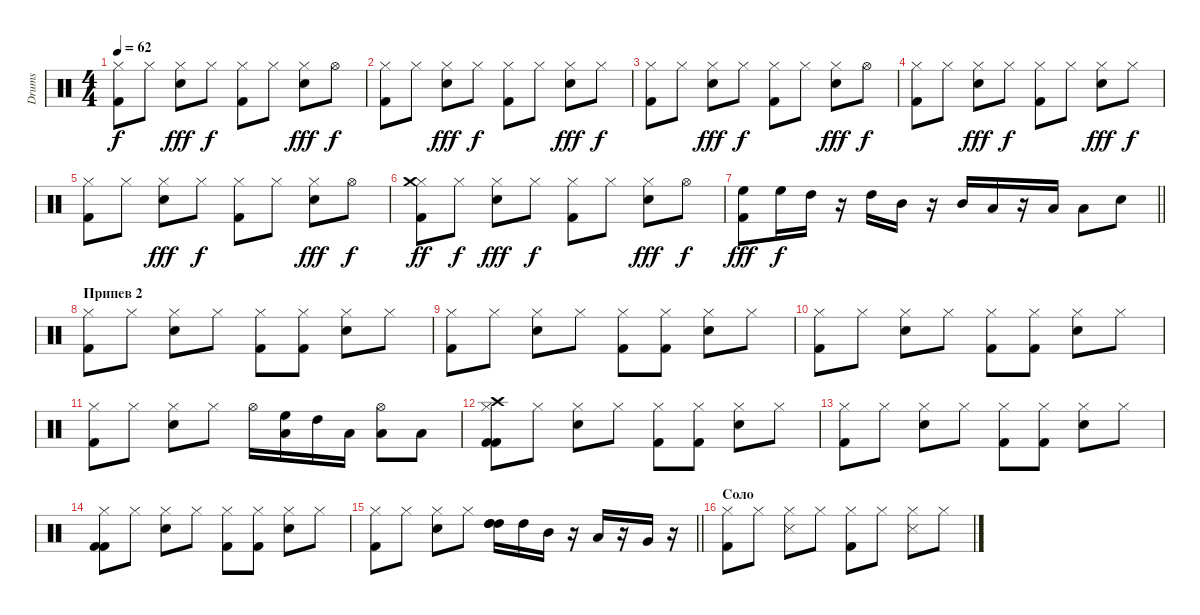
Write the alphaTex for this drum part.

\track ("Drums" "Drums") {instrument percussion}
\staff {score}
\articulation defaults
\ts (4 4)
\tempo 62
\clef neutral
\ks c
("Kick (hit) 2" "Hi-Hat (closed)").8{dy f} "Hi-Hat (closed)".8 ("Hi-Hat (closed)" "Electric Snare (hit)").8{dy fff} "Hi-Hat (closed)".8{dy f} ("Kick (hit) 2" "Hi-Hat (closed)").8 "Hi-Hat (closed)".8 ("Hi-Hat (closed)" "Electric Snare (hit)").8{dy fff} "Hi-Hat (open)".8{dy f} |
("Kick (hit) 2" "Hi-Hat (closed)").8 "Hi-Hat (closed)".8 ("Electric Snare (hit)" "Hi-Hat (closed)").8{dy fff} "Hi-Hat (closed)".8{dy f} ("Kick (hit) 2" "Hi-Hat (closed)").8 "Hi-Hat (closed)".8 ("Hi-Hat (closed)" "Electric Snare (hit)").8{dy fff} "Hi-Hat (closed)".8{dy f} |
("Kick (hit) 2" "Hi-Hat (closed)").8 "Hi-Hat (closed)".8 ("Hi-Hat (closed)" "Electric Snare (hit)").8{dy fff} "Hi-Hat (closed)".8{dy f} ("Kick (hit) 2" "Hi-Hat (closed)").8 "Hi-Hat (closed)".8 ("Hi-Hat (closed)" "Electric Snare (hit)").8{dy fff} "Hi-Hat (open)".8{dy f} |
("Kick (hit) 2" "Hi-Hat (closed)").8 "Hi-Hat (closed)".8 ("Hi-Hat (closed)" "Electric Snare (hit)").8{dy fff} "Hi-Hat (closed)".8{dy f} ("Kick (hit) 2" "Hi-Hat (closed)").8 "Hi-Hat (closed)".8 ("Hi-Hat (closed)" "Electric Snare (hit)").8{dy fff} "Hi-Hat (closed)".8{dy f} |
("Kick (hit) 2" "Hi-Hat (closed)").8 "Hi-Hat (closed)".8 ("Hi-Hat (closed)" "Electric Snare (hit)").8{dy fff} "Hi-Hat (closed)".8{dy f} ("Kick (hit) 2" "Hi-Hat (closed)").8 "Hi-Hat (closed)".8 ("Hi-Hat (closed)" "Electric Snare (hit)").8{dy fff} "Hi-Hat (open)".8{dy f} |
("Kick (hit) 2" "Hi-Hat (closed)" "Crash medium (hit)").8{dy ff} "Hi-Hat (closed)".8{dy f} ("Hi-Hat (closed)" "Electric Snare (hit)").8{dy fff} "Hi-Hat (closed)".8{dy f} ("Kick (hit) 2" "Hi-Hat (closed)").8 "Hi-Hat (closed)".8 ("Hi-Hat (closed)" "Electric Snare (hit)").8{dy fff} "Hi-Hat (open)".8{dy f} |
\barLineRight lightlight
("High Floor Tom (hit)" "Kick (hit) 2").8{dy fff} "High Floor Tom (hit)".16{dy f} "High Tom (hit)".16 r.16 "High Tom (hit)".16 "Mid Tom (hit)".16 r.16 "Mid Tom (hit)".16 "Low Tom (hit)".16 r.16 "Low Floor Tom (hit)".16 "Low Floor Tom (hit)".8 "Snare (hit) 2".8 |
\section ("" "Припев 2")
("Kick (hit) 2" "Hi-Hat (closed)").8 "Hi-Hat (closed)".8 ("Snare (hit) 2" "Hi-Hat (closed)").8 "Hi-Hat (closed)".8 ("Kick (hit) 2" "Hi-Hat (closed)").8 ("Kick (hit) 2" "Hi-Hat (closed)").8 ("Snare (hit) 2" "Hi-Hat (closed)").8 "Hi-Hat (closed)".8 |
("Kick (hit) 2" "Hi-Hat (closed)").8 "Hi-Hat (closed)".8 ("Snare (hit) 2" "Hi-Hat (closed)").8 "Hi-Hat (closed)".8 ("Kick (hit) 2" "Hi-Hat (closed)").8 ("Kick (hit) 2" "Hi-Hat (closed)").8 ("Snare (hit) 2" "Hi-Hat (closed)").8 "Hi-Hat (closed)".8 |
("Kick (hit) 2" "Hi-Hat (closed)").8 "Hi-Hat (closed)".8 ("Snare (hit) 2" "Hi-Hat (closed)").8 "Hi-Hat (closed)".8 ("Kick (hit) 2" "Hi-Hat (closed)").8 ("Kick (hit) 2" "Hi-Hat (closed)").8 ("Snare (hit) 2" "Hi-Hat (closed)").8 "Hi-Hat (closed)".8 |
("Kick (hit) 2" "Hi-Hat (closed)").8 "Hi-Hat (closed)".8 ("Snare (hit) 2" "Hi-Hat (closed)").8 "Hi-Hat (closed)".8 "Hi-Hat (open)".16 ("Low Tom (hit)" "High Floor Tom (hit)").16 "High Tom (hit)".16 "Low Tom (hit)".16 ("Hi-Hat (open)" "Low Floor Tom (hit)").8 "Low Floor Tom (hit)".8 |
("Kick (hit) 2" "Hi-Hat (closed)" "Crash high (hit)" "Kick (hit) 2").8 "Hi-Hat (closed)".8 ("Snare (hit) 2" "Hi-Hat (closed)").8 "Hi-Hat (closed)".8 ("Kick (hit) 2" "Hi-Hat (closed)").8 ("Kick (hit) 2" "Hi-Hat (closed)").8 ("Snare (hit) 2" "Hi-Hat (closed)").8 "Hi-Hat (closed)".8 |
("Kick (hit) 2" "Hi-Hat (closed)").8 "Hi-Hat (closed)".8 ("Snare (hit) 2" "Hi-Hat (closed)").8 "Hi-Hat (closed)".8 ("Kick (hit) 2" "Hi-Hat (closed)").8 ("Kick (hit) 2" "Hi-Hat (closed)").8 ("Snare (hit) 2" "Hi-Hat (closed)").8 "Hi-Hat (closed)".8 |
("Kick (hit) 2" "Hi-Hat (closed)" "Kick (hit) 2").8 "Hi-Hat (closed)".8 ("Snare (hit) 2" "Hi-Hat (closed)").8 "Hi-Hat (closed)".8 ("Kick (hit) 2" "Hi-Hat (closed)").8 ("Kick (hit) 2" "Hi-Hat (closed)").8 ("Snare (hit) 2" "Hi-Hat (closed)").8 "Hi-Hat (closed)".8 |
\barLineRight lightlight
("Kick (hit) 2" "Hi-Hat (closed)").8 "Hi-Hat (closed)".8 ("Snare (hit) 2" "Hi-Hat (closed)").8 "Hi-Hat (closed)".8 ("High Tom (hit)" "High Tom (hit)" "High Tom (hit)").16 "High Tom (hit)".16 "Mid Tom (hit)".16 r.16 "Low Tom (hit)".16 r.16 "Very Low Tom (hit)".16 r.16 |
\section ("" "Соло")
("Kick (hit) 2" "Hi-Hat (closed)").8 "Hi-Hat (closed)".8 ("Snare (side stick) 3" "Hi-Hat (closed)").8 "Hi-Hat (closed)".8 ("Kick (hit) 2" "Hi-Hat (closed)").8 "Hi-Hat (closed)".8 ("Snare (side stick) 3" "Hi-Hat (closed)").8 "Hi-Hat (closed)".8
